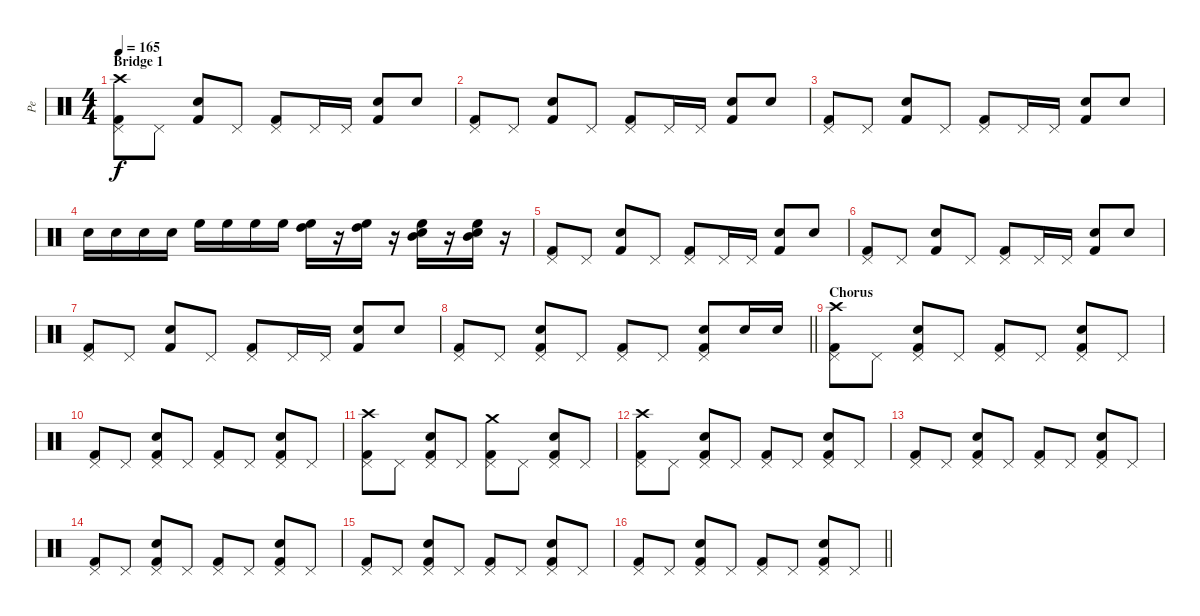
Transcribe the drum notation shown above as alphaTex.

\track ("Pe" "Pe") {instrument percussion}
\staff {score}
\articulation defaults
\ts (4 4)
\section ("" "Bridge 1")
\tempo 165
\clef neutral
\ks c
("Pedal Hi-Hat (hit)" "Kick (hit) 2" "Crash high (hit)").8{dy f} "Pedal Hi-Hat (hit)".8 ("Snare (hit) 2" "Kick (hit) 2").8 "Pedal Hi-Hat (hit)".8 ("Pedal Hi-Hat (hit)" "Kick (hit) 2").8 "Pedal Hi-Hat (hit)".16 "Pedal Hi-Hat (hit)".16 ("Snare (hit) 2" "Kick (hit) 2").8 "Snare (hit) 2".8 |
("Pedal Hi-Hat (hit)" "Kick (hit) 2").8 "Pedal Hi-Hat (hit)".8 ("Snare (hit) 2" "Kick (hit) 2").8 "Pedal Hi-Hat (hit)".8 ("Pedal Hi-Hat (hit)" "Kick (hit) 2").8 "Pedal Hi-Hat (hit)".16 "Pedal Hi-Hat (hit)".16 ("Snare (hit) 2" "Kick (hit) 2").8 "Snare (hit) 2".8 |
("Pedal Hi-Hat (hit)" "Kick (hit) 2").8 "Pedal Hi-Hat (hit)".8 ("Snare (hit) 2" "Kick (hit) 2").8 "Pedal Hi-Hat (hit)".8 ("Pedal Hi-Hat (hit)" "Kick (hit) 2").8 "Pedal Hi-Hat (hit)".16 "Pedal Hi-Hat (hit)".16 ("Snare (hit) 2" "Kick (hit) 2").8 "Snare (hit) 2".8 |
"Electric Snare (hit)".16 "Electric Snare (hit)".16 "Electric Snare (hit)".16 "Electric Snare (hit)".16 "High Floor Tom (hit)".16 "High Floor Tom (hit)".16 "High Floor Tom (hit)".16 "High Floor Tom (hit)".16 ("High Tom (hit)" "High Floor Tom (hit)").16 r.16 ("High Tom (hit)" "High Floor Tom (hit)").16 r.16 ("Mid Tom (hit)" "High Floor Tom (hit)" "Electric Snare (hit)").16 r.16 ("Mid Tom (hit)" "High Floor Tom (hit)" "Electric Snare (hit)").16 r.16 |
("Pedal Hi-Hat (hit)" "Kick (hit) 2").8 "Pedal Hi-Hat (hit)".8 ("Snare (hit) 2" "Kick (hit) 2").8 "Pedal Hi-Hat (hit)".8 ("Pedal Hi-Hat (hit)" "Kick (hit) 2").8 "Pedal Hi-Hat (hit)".16 "Pedal Hi-Hat (hit)".16 ("Snare (hit) 2" "Kick (hit) 2").8 "Snare (hit) 2".8 |
("Pedal Hi-Hat (hit)" "Kick (hit) 2").8 "Pedal Hi-Hat (hit)".8 ("Snare (hit) 2" "Kick (hit) 2").8 "Pedal Hi-Hat (hit)".8 ("Pedal Hi-Hat (hit)" "Kick (hit) 2").8 "Pedal Hi-Hat (hit)".16 "Pedal Hi-Hat (hit)".16 ("Snare (hit) 2" "Kick (hit) 2").8 "Snare (hit) 2".8 |
("Pedal Hi-Hat (hit)" "Kick (hit) 2").8 "Pedal Hi-Hat (hit)".8 ("Snare (hit) 2" "Kick (hit) 2").8 "Pedal Hi-Hat (hit)".8 ("Pedal Hi-Hat (hit)" "Kick (hit) 2").8 "Pedal Hi-Hat (hit)".16 "Pedal Hi-Hat (hit)".16 ("Snare (hit) 2" "Kick (hit) 2").8 "Snare (hit) 2".8 |
\barLineRight lightlight
("Pedal Hi-Hat (hit)" "Kick (hit) 2").8 "Pedal Hi-Hat (hit)".8 ("Electric Snare (hit)" "Pedal Hi-Hat (hit)" "Kick (hit) 2").8 "Pedal Hi-Hat (hit)".8 ("Pedal Hi-Hat (hit)" "Kick (hit) 2").8 "Pedal Hi-Hat (hit)".8 ("Electric Snare (hit)" "Pedal Hi-Hat (hit)" "Kick (hit) 2").8 "Electric Snare (hit)".16 "Electric Snare (hit)".16 |
\section ("" "Chorus")
("Pedal Hi-Hat (hit)" "Kick (hit) 2" "Crash high (hit)").8 "Pedal Hi-Hat (hit)".8 ("Electric Snare (hit)" "Pedal Hi-Hat (hit)" "Kick (hit) 2").8 "Pedal Hi-Hat (hit)".8 ("Pedal Hi-Hat (hit)" "Kick (hit) 2").8 "Pedal Hi-Hat (hit)".8 ("Electric Snare (hit)" "Pedal Hi-Hat (hit)" "Kick (hit) 2").8 "Pedal Hi-Hat (hit)".8 |
("Pedal Hi-Hat (hit)" "Kick (hit) 2").8 "Pedal Hi-Hat (hit)".8 ("Electric Snare (hit)" "Pedal Hi-Hat (hit)" "Kick (hit) 2").8 "Pedal Hi-Hat (hit)".8 ("Pedal Hi-Hat (hit)" "Kick (hit) 2").8 "Pedal Hi-Hat (hit)".8 ("Electric Snare (hit)" "Pedal Hi-Hat (hit)" "Kick (hit) 2").8 "Pedal Hi-Hat (hit)".8 |
("Pedal Hi-Hat (hit)" "Kick (hit) 2" "Crash high (hit)").8 "Pedal Hi-Hat (hit)".8 ("Electric Snare (hit)" "Pedal Hi-Hat (hit)" "Kick (hit) 2").8 "Pedal Hi-Hat (hit)".8 ("Pedal Hi-Hat (hit)" "Kick (hit) 2" "Crash medium (hit)").8 "Pedal Hi-Hat (hit)".8 ("Electric Snare (hit)" "Pedal Hi-Hat (hit)" "Kick (hit) 2").8 "Pedal Hi-Hat (hit)".8 |
("Pedal Hi-Hat (hit)" "Kick (hit) 2" "Crash high (hit)").8 "Pedal Hi-Hat (hit)".8 ("Electric Snare (hit)" "Pedal Hi-Hat (hit)" "Kick (hit) 2").8 "Pedal Hi-Hat (hit)".8 ("Pedal Hi-Hat (hit)" "Kick (hit) 2").8 "Pedal Hi-Hat (hit)".8 ("Electric Snare (hit)" "Pedal Hi-Hat (hit)" "Kick (hit) 2").8 "Pedal Hi-Hat (hit)".8 |
("Pedal Hi-Hat (hit)" "Kick (hit) 2").8 "Pedal Hi-Hat (hit)".8 ("Electric Snare (hit)" "Pedal Hi-Hat (hit)" "Kick (hit) 2").8 "Pedal Hi-Hat (hit)".8 ("Pedal Hi-Hat (hit)" "Kick (hit) 2").8 "Pedal Hi-Hat (hit)".8 ("Electric Snare (hit)" "Pedal Hi-Hat (hit)" "Kick (hit) 2").8 "Pedal Hi-Hat (hit)".8 |
("Pedal Hi-Hat (hit)" "Kick (hit) 2").8 "Pedal Hi-Hat (hit)".8 ("Electric Snare (hit)" "Pedal Hi-Hat (hit)" "Kick (hit) 2").8 "Pedal Hi-Hat (hit)".8 ("Pedal Hi-Hat (hit)" "Kick (hit) 2").8 "Pedal Hi-Hat (hit)".8 ("Electric Snare (hit)" "Pedal Hi-Hat (hit)" "Kick (hit) 2").8 "Pedal Hi-Hat (hit)".8 |
("Pedal Hi-Hat (hit)" "Kick (hit) 2").8 "Pedal Hi-Hat (hit)".8 ("Electric Snare (hit)" "Pedal Hi-Hat (hit)" "Kick (hit) 2").8 "Pedal Hi-Hat (hit)".8 ("Pedal Hi-Hat (hit)" "Kick (hit) 2").8 "Pedal Hi-Hat (hit)".8 ("Electric Snare (hit)" "Pedal Hi-Hat (hit)" "Kick (hit) 2").8 "Pedal Hi-Hat (hit)".8 |
\barLineRight lightlight
("Pedal Hi-Hat (hit)" "Kick (hit) 2").8 "Pedal Hi-Hat (hit)".8 ("Electric Snare (hit)" "Pedal Hi-Hat (hit)" "Kick (hit) 2").8 "Pedal Hi-Hat (hit)".8 ("Pedal Hi-Hat (hit)" "Kick (hit) 2").8 "Pedal Hi-Hat (hit)".8 ("Electric Snare (hit)" "Pedal Hi-Hat (hit)" "Kick (hit) 2").8 "Pedal Hi-Hat (hit)".8
